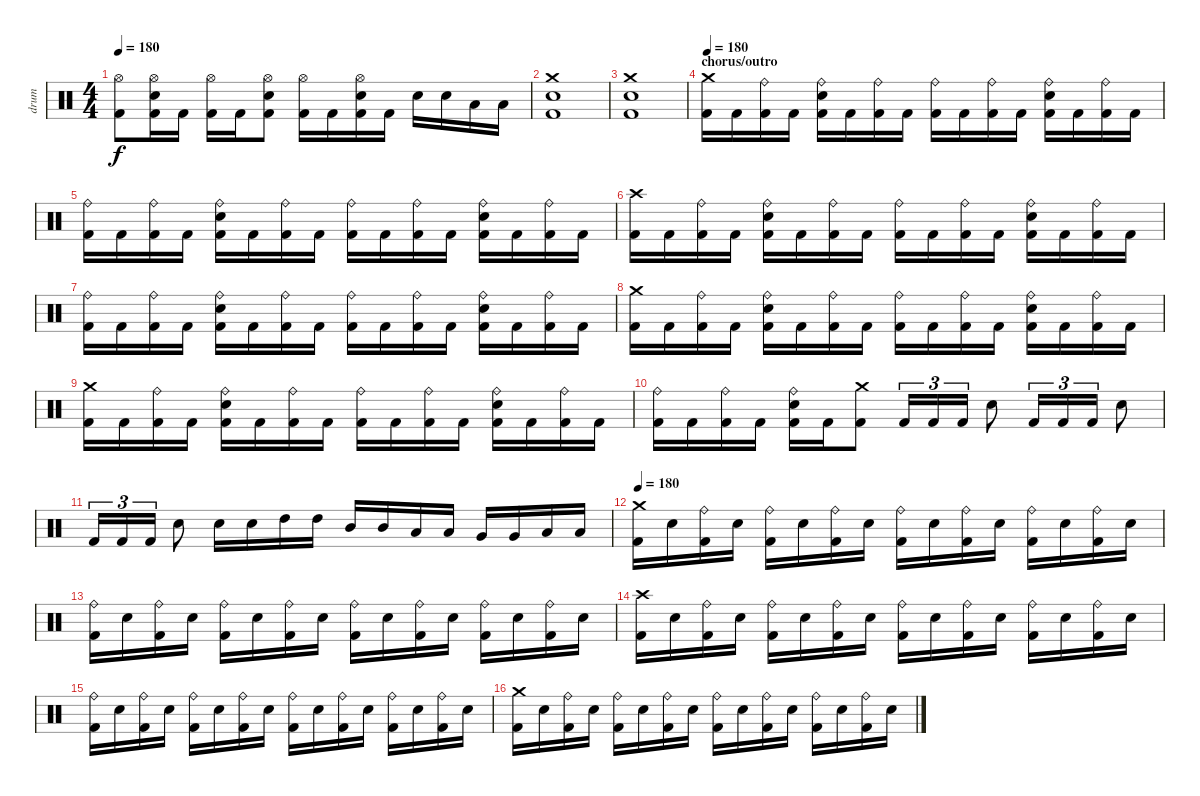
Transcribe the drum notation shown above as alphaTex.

\track ("drum" "drum") {instrument percussion}
\staff {score}
\articulation defaults
\ts (4 4)
\tempo 180
\clef neutral
\ks c
("Hi-Hat (open)" "Kick (hit) 2").8{dy f} ("Hi-Hat (open)" "Electric Snare (hit)" "Kick (hit) 2").16 "Kick (hit) 2".16 ("Hi-Hat (open)" "Kick (hit) 2").16 "Kick (hit) 2".16 ("Hi-Hat (open)" "Electric Snare (hit)" "Kick (hit) 2").8 ("Hi-Hat (open)" "Kick (hit) 2").16 "Kick (hit) 2".16 ("Hi-Hat (open)" "Electric Snare (hit)" "Kick (hit) 2").16 "Kick (hit) 2".16 "Electric Snare (hit)".16 "Electric Snare (hit)".16 "Low Tom (hit)".16 "Low Tom (hit)".16 |
("Crash medium (hit)" "Electric Snare (hit)" "Kick (hit) 2").1 |
("Crash medium (hit)" "Electric Snare (hit)" "Kick (hit) 2").1 |
\section ("" "chorus/outro")
\tempo 180
("Crash medium (hit)" "Kick (hit) 2").16 "Kick (hit) 2".16 ("Ride (bell)" "Kick (hit) 2").16 "Kick (hit) 2".16 ("Ride (bell)" "Electric Snare (hit)" "Kick (hit) 2").16 "Kick (hit) 2".16 ("Ride (bell)" "Kick (hit) 2").16 "Kick (hit) 2".16 ("Ride (bell)" "Kick (hit) 2").16 "Kick (hit) 2".16 ("Ride (bell)" "Kick (hit) 2").16 "Kick (hit) 2".16 ("Ride (bell)" "Electric Snare (hit)" "Kick (hit) 2").16 "Kick (hit) 2".16 ("Ride (bell)" "Kick (hit) 2").16 "Kick (hit) 2".16 |
("Ride (bell)" "Kick (hit) 2").16 "Kick (hit) 2".16 ("Ride (bell)" "Kick (hit) 2").16 "Kick (hit) 2".16 ("Ride (bell)" "Electric Snare (hit)" "Kick (hit) 2").16 "Kick (hit) 2".16 ("Ride (bell)" "Kick (hit) 2").16 "Kick (hit) 2".16 ("Ride (bell)" "Kick (hit) 2").16 "Kick (hit) 2".16 ("Ride (bell)" "Kick (hit) 2").16 "Kick (hit) 2".16 ("Ride (bell)" "Electric Snare (hit)" "Kick (hit) 2").16 "Kick (hit) 2".16 ("Ride (bell)" "Kick (hit) 2").16 "Kick (hit) 2".16 |
("Crash high (hit)" "Kick (hit) 2").16 "Kick (hit) 2".16 ("Ride (bell)" "Kick (hit) 2").16 "Kick (hit) 2".16 ("Ride (bell)" "Electric Snare (hit)" "Kick (hit) 2").16 "Kick (hit) 2".16 ("Ride (bell)" "Kick (hit) 2").16 "Kick (hit) 2".16 ("Ride (bell)" "Kick (hit) 2").16 "Kick (hit) 2".16 ("Ride (bell)" "Kick (hit) 2").16 "Kick (hit) 2".16 ("Ride (bell)" "Electric Snare (hit)" "Kick (hit) 2").16 "Kick (hit) 2".16 ("Ride (bell)" "Kick (hit) 2").16 "Kick (hit) 2".16 |
("Ride (bell)" "Kick (hit) 2").16 "Kick (hit) 2".16 ("Ride (bell)" "Kick (hit) 2").16 "Kick (hit) 2".16 ("Ride (bell)" "Electric Snare (hit)" "Kick (hit) 2").16 "Kick (hit) 2".16 ("Ride (bell)" "Kick (hit) 2").16 "Kick (hit) 2".16 ("Ride (bell)" "Kick (hit) 2").16 "Kick (hit) 2".16 ("Ride (bell)" "Kick (hit) 2").16 "Kick (hit) 2".16 ("Ride (bell)" "Electric Snare (hit)" "Kick (hit) 2").16 "Kick (hit) 2".16 ("Ride (bell)" "Kick (hit) 2").16 "Kick (hit) 2".16 |
("Crash medium (hit)" "Kick (hit) 2").16 "Kick (hit) 2".16 ("Ride (bell)" "Kick (hit) 2").16 "Kick (hit) 2".16 ("Ride (bell)" "Electric Snare (hit)" "Kick (hit) 2").16 "Kick (hit) 2".16 ("Ride (bell)" "Kick (hit) 2").16 "Kick (hit) 2".16 ("Ride (bell)" "Kick (hit) 2").16 "Kick (hit) 2".16 ("Ride (bell)" "Kick (hit) 2").16 "Kick (hit) 2".16 ("Ride (bell)" "Electric Snare (hit)" "Kick (hit) 2").16 "Kick (hit) 2".16 ("Ride (bell)" "Kick (hit) 2").16 "Kick (hit) 2".16 |
("Crash medium (hit)" "Kick (hit) 2").16 "Kick (hit) 2".16 ("Ride (bell)" "Kick (hit) 2").16 "Kick (hit) 2".16 ("Ride (bell)" "Electric Snare (hit)" "Kick (hit) 2").16 "Kick (hit) 2".16 ("Ride (bell)" "Kick (hit) 2").16 "Kick (hit) 2".16 ("Ride (bell)" "Kick (hit) 2").16 "Kick (hit) 2".16 ("Ride (bell)" "Kick (hit) 2").16 "Kick (hit) 2".16 ("Ride (bell)" "Electric Snare (hit)" "Kick (hit) 2").16 "Kick (hit) 2".16 ("Ride (bell)" "Kick (hit) 2").16 "Kick (hit) 2".16 |
("Ride (bell)" "Kick (hit) 2").16 "Kick (hit) 2".16 ("Ride (bell)" "Kick (hit) 2").16 "Kick (hit) 2".16 ("Ride (bell)" "Electric Snare (hit)" "Kick (hit) 2").16 "Kick (hit) 2".16 ("Crash medium (hit)" "Kick (hit) 2").8 "Kick (hit) 2".16{tu (3 2)} "Kick (hit) 2".16{tu (3 2)} "Kick (hit) 2".16{tu (3 2)} "Electric Snare (hit)".8 "Kick (hit) 2".16{tu (3 2)} "Kick (hit) 2".16{tu (3 2)} "Kick (hit) 2".16{tu (3 2)} "Electric Snare (hit)".8 |
"Kick (hit) 2".16{tu (3 2)} "Kick (hit) 2".16{tu (3 2)} "Kick (hit) 2".16{tu (3 2)} "Electric Snare (hit)".8 "Electric Snare (hit)".16 "Electric Snare (hit)".16 "High Tom (hit)".16 "High Tom (hit)".16 "Mid Tom (hit)".16 "Mid Tom (hit)".16 "Low Tom (hit)".16 "Low Tom (hit)".16 "Very Low Tom (hit)".16 "Very Low Tom (hit)".16 "Low Floor Tom (hit)".16 "Low Floor Tom (hit)".16 |
\tempo 180
("Crash medium (hit)" "Kick (hit) 2").16 "Electric Snare (hit)".16 ("Ride (bell)" "Kick (hit) 2").16 "Electric Snare (hit)".16 ("Ride (bell)" "Kick (hit) 2").16 "Electric Snare (hit)".16 ("Ride (bell)" "Kick (hit) 2").16 "Electric Snare (hit)".16 ("Ride (bell)" "Kick (hit) 2").16 "Electric Snare (hit)".16 ("Ride (bell)" "Kick (hit) 2").16 "Electric Snare (hit)".16 ("Ride (bell)" "Kick (hit) 2").16 "Electric Snare (hit)".16 ("Ride (bell)" "Kick (hit) 2").16 "Electric Snare (hit)".16 |
("Ride (bell)" "Kick (hit) 2").16 "Electric Snare (hit)".16 ("Ride (bell)" "Kick (hit) 2").16 "Electric Snare (hit)".16 ("Ride (bell)" "Kick (hit) 2").16 "Electric Snare (hit)".16 ("Ride (bell)" "Kick (hit) 2").16 "Electric Snare (hit)".16 ("Ride (bell)" "Kick (hit) 2").16 "Electric Snare (hit)".16 ("Ride (bell)" "Kick (hit) 2").16 "Electric Snare (hit)".16 ("Ride (bell)" "Kick (hit) 2").16 "Electric Snare (hit)".16 ("Ride (bell)" "Kick (hit) 2").16 "Electric Snare (hit)".16 |
("Crash high (hit)" "Kick (hit) 2").16 "Electric Snare (hit)".16 ("Ride (bell)" "Kick (hit) 2").16 "Electric Snare (hit)".16 ("Ride (bell)" "Kick (hit) 2").16 "Electric Snare (hit)".16 ("Ride (bell)" "Kick (hit) 2").16 "Electric Snare (hit)".16 ("Ride (bell)" "Kick (hit) 2").16 "Electric Snare (hit)".16 ("Ride (bell)" "Kick (hit) 2").16 "Electric Snare (hit)".16 ("Ride (bell)" "Kick (hit) 2").16 "Electric Snare (hit)".16 ("Ride (bell)" "Kick (hit) 2").16 "Electric Snare (hit)".16 |
("Ride (bell)" "Kick (hit) 2").16 "Electric Snare (hit)".16 ("Ride (bell)" "Kick (hit) 2").16 "Electric Snare (hit)".16 ("Ride (bell)" "Kick (hit) 2").16 "Electric Snare (hit)".16 ("Ride (bell)" "Kick (hit) 2").16 "Electric Snare (hit)".16 ("Ride (bell)" "Kick (hit) 2").16 "Electric Snare (hit)".16 ("Ride (bell)" "Kick (hit) 2").16 "Electric Snare (hit)".16 ("Ride (bell)" "Kick (hit) 2").16 "Electric Snare (hit)".16 ("Ride (bell)" "Kick (hit) 2").16 "Electric Snare (hit)".16 |
("Crash medium (hit)" "Kick (hit) 2").16 "Electric Snare (hit)".16 ("Ride (bell)" "Kick (hit) 2").16 "Electric Snare (hit)".16 ("Ride (bell)" "Kick (hit) 2").16 "Electric Snare (hit)".16 ("Ride (bell)" "Kick (hit) 2").16 "Electric Snare (hit)".16 ("Ride (bell)" "Kick (hit) 2").16 "Electric Snare (hit)".16 ("Ride (bell)" "Kick (hit) 2").16 "Electric Snare (hit)".16 ("Ride (bell)" "Kick (hit) 2").16 "Electric Snare (hit)".16 ("Ride (bell)" "Kick (hit) 2").16 "Electric Snare (hit)".16
